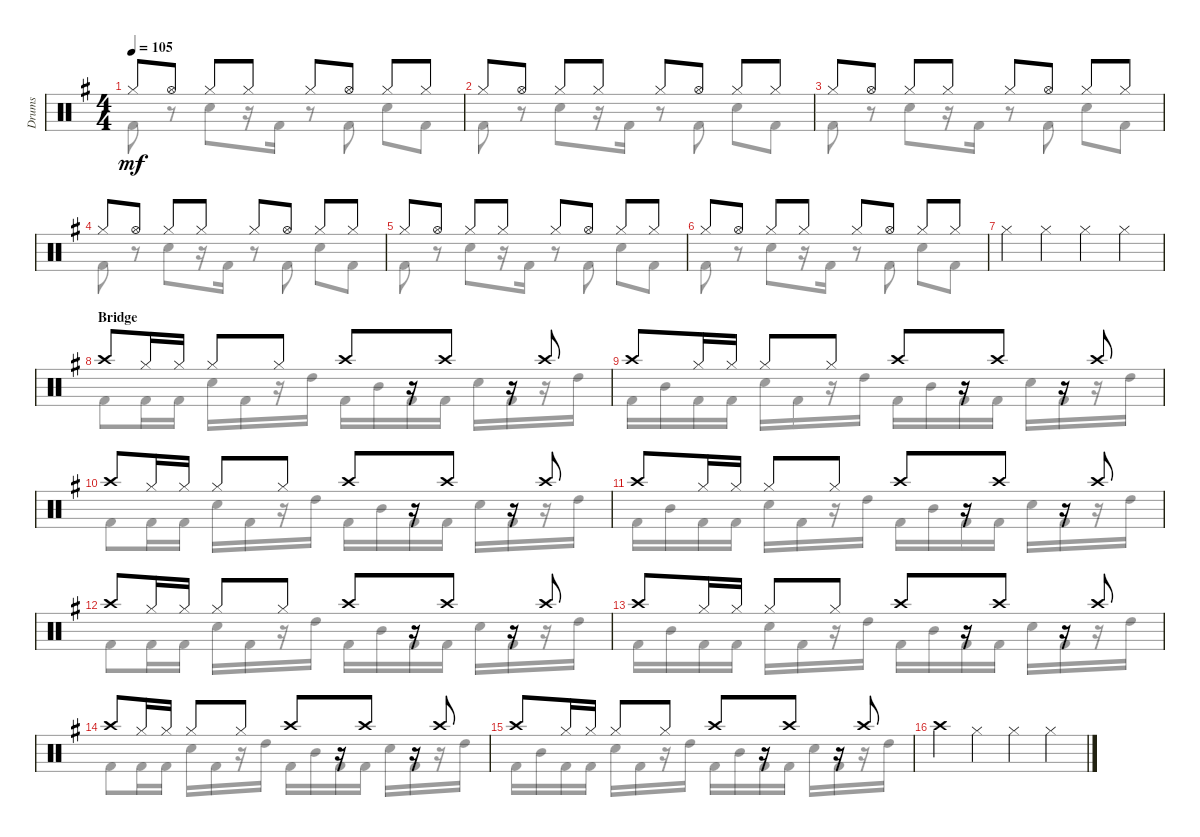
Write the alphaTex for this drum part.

\track ("Drums" "Drums") {instrument percussion}
\staff {score}
\articulation defaults
\voice
\ts (4 4)
\tempo 105
\clef neutral
\ks eminor "Hi-Hat (closed)".8{dy mf} "Hi-Hat (open)".8 "Hi-Hat (closed)".8 "Hi-Hat (closed)".8 "Hi-Hat (closed)".8 "Hi-Hat (open)".8 "Hi-Hat (closed)".8 "Hi-Hat (closed)".8
|
"Hi-Hat (closed)".8 "Hi-Hat (open)".8 "Hi-Hat (closed)".8 "Hi-Hat (closed)".8 "Hi-Hat (closed)".8 "Hi-Hat (open)".8 "Hi-Hat (closed)".8 "Hi-Hat (closed)".8 |
"Hi-Hat (closed)".8 "Hi-Hat (open)".8 "Hi-Hat (closed)".8 "Hi-Hat (closed)".8 "Hi-Hat (closed)".8 "Hi-Hat (open)".8 "Hi-Hat (closed)".8 "Hi-Hat (closed)".8 |
"Hi-Hat (closed)".8 "Hi-Hat (open)".8 "Hi-Hat (closed)".8 "Hi-Hat (closed)".8 "Hi-Hat (closed)".8 "Hi-Hat (open)".8 "Hi-Hat (closed)".8 "Hi-Hat (closed)".8 |
"Hi-Hat (closed)".8 "Hi-Hat (open)".8 "Hi-Hat (closed)".8 "Hi-Hat (closed)".8 "Hi-Hat (closed)".8 "Hi-Hat (open)".8 "Hi-Hat (closed)".8 "Hi-Hat (closed)".8 |
"Hi-Hat (closed)".8 "Hi-Hat (open)".8 "Hi-Hat (closed)".8 "Hi-Hat (closed)".8 "Hi-Hat (closed)".8 "Hi-Hat (open)".8 "Hi-Hat (closed)".8 "Hi-Hat (closed)".8 |
"Hi-Hat (closed)".4 "Hi-Hat (closed)".4 "Hi-Hat (closed)".4 "Hi-Hat (closed)".4 |
\section ("" "Bridge")
"Crash high (hit)".8 "Hi-Hat (closed)".16 "Hi-Hat (closed)".16 "Hi-Hat (closed)".8 "Hi-Hat (closed)".8 "Crash high (hit)".8 r.16 "Crash high (hit)".8 r.16 "Crash high (hit)".8 |
"Crash high (hit)".8 "Hi-Hat (closed)".16 "Hi-Hat (closed)".16 "Hi-Hat (closed)".8 "Hi-Hat (closed)".8 "Crash high (hit)".8 r.16 "Crash high (hit)".8 r.16 "Crash high (hit)".8 |
"Crash high (hit)".8 "Hi-Hat (closed)".16 "Hi-Hat (closed)".16 "Hi-Hat (closed)".8 "Hi-Hat (closed)".8 "Crash high (hit)".8 r.16 "Crash high (hit)".8 r.16 "Crash high (hit)".8 |
"Crash high (hit)".8 "Hi-Hat (closed)".16 "Hi-Hat (closed)".16 "Hi-Hat (closed)".8 "Hi-Hat (closed)".8 "Crash high (hit)".8 r.16 "Crash high (hit)".8 r.16 "Crash high (hit)".8 |
"Crash high (hit)".8 "Hi-Hat (closed)".16 "Hi-Hat (closed)".16 "Hi-Hat (closed)".8 "Hi-Hat (closed)".8 "Crash high (hit)".8 r.16 "Crash high (hit)".8 r.16 "Crash high (hit)".8 |
"Crash high (hit)".8 "Hi-Hat (closed)".16 "Hi-Hat (closed)".16 "Hi-Hat (closed)".8 "Hi-Hat (closed)".8 "Crash high (hit)".8 r.16 "Crash high (hit)".8 r.16 "Crash high (hit)".8 |
"Crash high (hit)".8 "Hi-Hat (closed)".16 "Hi-Hat (closed)".16 "Hi-Hat (closed)".8 "Hi-Hat (closed)".8 "Crash high (hit)".8 r.16 "Crash high (hit)".8 r.16 "Crash high (hit)".8 |
"Crash high (hit)".8 "Hi-Hat (closed)".16 "Hi-Hat (closed)".16 "Hi-Hat (closed)".8 "Hi-Hat (closed)".8 "Crash high (hit)".8 r.16 "Crash high (hit)".8 r.16 "Crash high (hit)".8 |
"Crash high (hit)".4 "Hi-Hat (closed)".4 "Hi-Hat (closed)".4 "Hi-Hat (closed)".4
\voice
\clef neutral
\ottava regular
\simile none
\ks eminor "Kick (hit) 2".8{dy mf}
r.8 "Snare (hit) 2".8 r.16 "Kick (hit) 2".16 r.8 "Kick (hit) 2".8 "Snare (hit) 2".8 "Kick (hit) 2".8 |
"Kick (hit) 2".8 r.8 "Snare (hit) 2".8 r.16 "Kick (hit) 2".16 r.8 "Kick (hit) 2".8 "Snare (hit) 2".8 "Kick (hit) 2".8 |
"Kick (hit) 2".8 r.8 "Snare (hit) 2".8 r.16 "Kick (hit) 2".16 r.8 "Kick (hit) 2".8 "Snare (hit) 2".8 "Kick (hit) 2".8 |
"Kick (hit) 2".8 r.8 "Snare (hit) 2".8 r.16 "Kick (hit) 2".16 r.8 "Kick (hit) 2".8 "Snare (hit) 2".8 "Kick (hit) 2".8 |
"Kick (hit) 2".8 r.8 "Snare (hit) 2".8 r.16 "Kick (hit) 2".16 r.8 "Kick (hit) 2".8 "Snare (hit) 2".8 "Kick (hit) 2".8 |
"Kick (hit) 2".8 r.8 "Snare (hit) 2".8 r.16 "Kick (hit) 2".16 r.8 "Kick (hit) 2".8 "Snare (hit) 2".8 "Kick (hit) 2".8 |
|
"Kick (hit) 2".8 "Kick (hit) 2".16 "Kick (hit) 2".16 "Snare (hit) 2".16 "Kick (hit) 2".16 r.16 "High Tom (hit)".16 "Kick (hit) 2".16 "Mid Tom (hit)".16 "Kick (hit) 2".16 "Kick (hit) 2".16 "Snare (hit) 2".16 "Kick (hit) 2".16 r.16 "High Tom (hit)".16 |
"Kick (hit) 2".16 "Mid Tom (hit)".16 "Kick (hit) 2".16 "Kick (hit) 2".16 "Snare (hit) 2".16 "Kick (hit) 2".16 r.16 "High Tom (hit)".16 "Kick (hit) 2".16 "Mid Tom (hit)".16 "Kick (hit) 2".16 "Kick (hit) 2".16 "Snare (hit) 2".16 "Kick (hit) 2".16 r.16 "High Tom (hit)".16 |
"Kick (hit) 2".8 "Kick (hit) 2".16 "Kick (hit) 2".16 "Snare (hit) 2".16 "Kick (hit) 2".16 r.16 "High Tom (hit)".16 "Kick (hit) 2".16 "Mid Tom (hit)".16 "Kick (hit) 2".16 "Kick (hit) 2".16 "Snare (hit) 2".16 "Kick (hit) 2".16 r.16 "High Tom (hit)".16 |
"Kick (hit) 2".16 "Mid Tom (hit)".16 "Kick (hit) 2".16 "Kick (hit) 2".16 "Snare (hit) 2".16 "Kick (hit) 2".16 r.16 "High Tom (hit)".16 "Kick (hit) 2".16 "Mid Tom (hit)".16 "Kick (hit) 2".16 "Kick (hit) 2".16 "Snare (hit) 2".16 "Kick (hit) 2".16 r.16 "High Tom (hit)".16 |
"Kick (hit) 2".8 "Kick (hit) 2".16 "Kick (hit) 2".16 "Snare (hit) 2".16 "Kick (hit) 2".16 r.16 "High Tom (hit)".16 "Kick (hit) 2".16 "Mid Tom (hit)".16 "Kick (hit) 2".16 "Kick (hit) 2".16 "Snare (hit) 2".16 "Kick (hit) 2".16 r.16 "High Tom (hit)".16 |
"Kick (hit) 2".16 "Mid Tom (hit)".16 "Kick (hit) 2".16 "Kick (hit) 2".16 "Snare (hit) 2".16 "Kick (hit) 2".16 r.16 "High Tom (hit)".16 "Kick (hit) 2".16 "Mid Tom (hit)".16 "Kick (hit) 2".16 "Kick (hit) 2".16 "Snare (hit) 2".16 "Kick (hit) 2".16 r.16 "High Tom (hit)".16 |
"Kick (hit) 2".8 "Kick (hit) 2".16 "Kick (hit) 2".16 "Snare (hit) 2".16 "Kick (hit) 2".16 r.16 "High Tom (hit)".16 "Kick (hit) 2".16 "Mid Tom (hit)".16 "Kick (hit) 2".16 "Kick (hit) 2".16 "Snare (hit) 2".16 "Kick (hit) 2".16 r.16 "High Tom (hit)".16 |
"Kick (hit) 2".16 "Mid Tom (hit)".16 "Kick (hit) 2".16 "Kick (hit) 2".16 "Snare (hit) 2".16 "Kick (hit) 2".16 r.16 "High Tom (hit)".16 "Kick (hit) 2".16 "Mid Tom (hit)".16 "Kick (hit) 2".16 "Kick (hit) 2".16 "Snare (hit) 2".16 "Kick (hit) 2".16 r.16 "High Tom (hit)".16 |
